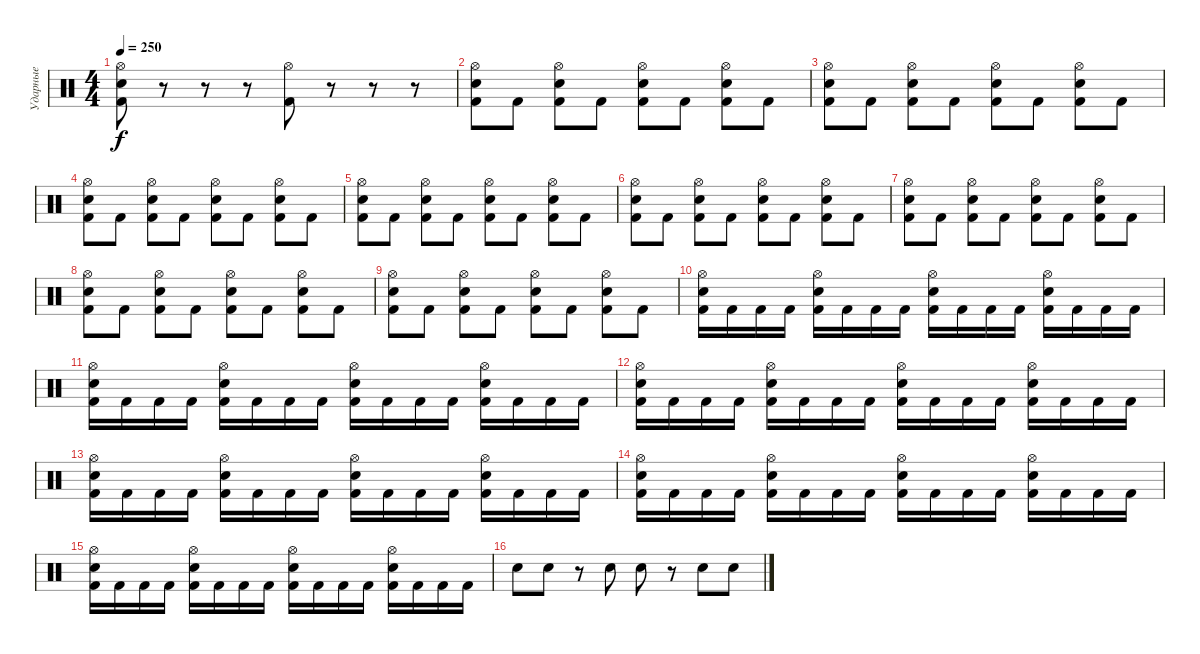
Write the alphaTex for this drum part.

\track ("Ударные" "Ударные") {instrument percussion}
\staff {score}
\articulation defaults
\ts (4 4)
\tempo 250
\clef neutral
\ks c
("Hi-Hat (open)" "Kick (hit) 2" "Electric Snare (hit)").8{dy f} r.8 r.8 r.8 ("Hi-Hat (open)" "Kick (hit) 2").8 r.8 r.8 r.8 |
("Kick (hit) 2" "Snare (hit) 2" "Hi-Hat (open)").8 "Kick (hit) 2".8 ("Kick (hit) 2" "Snare (hit) 2" "Hi-Hat (open)").8 "Kick (hit) 2".8 ("Kick (hit) 2" "Snare (hit) 2" "Hi-Hat (open)").8 "Kick (hit) 2".8 ("Kick (hit) 2" "Snare (hit) 2" "Hi-Hat (open)").8 "Kick (hit) 2".8 |
("Kick (hit) 2" "Snare (hit) 2" "Hi-Hat (open)").8 "Kick (hit) 2".8 ("Kick (hit) 2" "Snare (hit) 2" "Hi-Hat (open)").8 "Kick (hit) 2".8 ("Kick (hit) 2" "Snare (hit) 2" "Hi-Hat (open)").8 "Kick (hit) 2".8 ("Kick (hit) 2" "Snare (hit) 2" "Hi-Hat (open)").8 "Kick (hit) 2".8 |
("Kick (hit) 2" "Snare (hit) 2" "Hi-Hat (open)").8 "Kick (hit) 2".8 ("Kick (hit) 2" "Snare (hit) 2" "Hi-Hat (open)").8 "Kick (hit) 2".8 ("Kick (hit) 2" "Snare (hit) 2" "Hi-Hat (open)").8 "Kick (hit) 2".8 ("Kick (hit) 2" "Snare (hit) 2" "Hi-Hat (open)").8 "Kick (hit) 2".8 |
("Kick (hit) 2" "Snare (hit) 2" "Hi-Hat (open)").8 "Kick (hit) 2".8 ("Kick (hit) 2" "Snare (hit) 2" "Hi-Hat (open)").8 "Kick (hit) 2".8 ("Kick (hit) 2" "Snare (hit) 2" "Hi-Hat (open)").8 "Kick (hit) 2".8 ("Kick (hit) 2" "Snare (hit) 2" "Hi-Hat (open)").8 "Kick (hit) 2".8 |
("Kick (hit) 2" "Snare (hit) 2" "Hi-Hat (open)").8 "Kick (hit) 2".8 ("Kick (hit) 2" "Snare (hit) 2" "Hi-Hat (open)").8 "Kick (hit) 2".8 ("Kick (hit) 2" "Snare (hit) 2" "Hi-Hat (open)").8 "Kick (hit) 2".8 ("Kick (hit) 2" "Snare (hit) 2" "Hi-Hat (open)").8 "Kick (hit) 2".8 |
("Kick (hit) 2" "Snare (hit) 2" "Hi-Hat (open)").8 "Kick (hit) 2".8 ("Kick (hit) 2" "Snare (hit) 2" "Hi-Hat (open)").8 "Kick (hit) 2".8 ("Kick (hit) 2" "Snare (hit) 2" "Hi-Hat (open)").8 "Kick (hit) 2".8 ("Kick (hit) 2" "Snare (hit) 2" "Hi-Hat (open)").8 "Kick (hit) 2".8 |
("Kick (hit) 2" "Snare (hit) 2" "Hi-Hat (open)").8 "Kick (hit) 2".8 ("Kick (hit) 2" "Snare (hit) 2" "Hi-Hat (open)").8 "Kick (hit) 2".8 ("Kick (hit) 2" "Snare (hit) 2" "Hi-Hat (open)").8 "Kick (hit) 2".8 ("Kick (hit) 2" "Snare (hit) 2" "Hi-Hat (open)").8 "Kick (hit) 2".8 |
("Kick (hit) 2" "Snare (hit) 2" "Hi-Hat (open)").8 "Kick (hit) 2".8 ("Kick (hit) 2" "Snare (hit) 2" "Hi-Hat (open)").8 "Kick (hit) 2".8 ("Kick (hit) 2" "Snare (hit) 2" "Hi-Hat (open)").8 "Kick (hit) 2".8 ("Kick (hit) 2" "Snare (hit) 2" "Hi-Hat (open)").8 "Kick (hit) 2".8 |
("Kick (hit) 2" "Snare (hit) 2" "Hi-Hat (open)").16 "Kick (hit) 2".16 "Kick (hit) 2".16 "Kick (hit) 2".16 ("Kick (hit) 2" "Snare (hit) 2" "Hi-Hat (open)").16 "Kick (hit) 2".16 "Kick (hit) 2".16 "Kick (hit) 2".16 ("Kick (hit) 2" "Snare (hit) 2" "Hi-Hat (open)").16 "Kick (hit) 2".16 "Kick (hit) 2".16 "Kick (hit) 2".16 ("Kick (hit) 2" "Snare (hit) 2" "Hi-Hat (open)").16 "Kick (hit) 2".16 "Kick (hit) 2".16 "Kick (hit) 2".16 |
("Kick (hit) 2" "Snare (hit) 2" "Hi-Hat (open)").16 "Kick (hit) 2".16 "Kick (hit) 2".16 "Kick (hit) 2".16 ("Kick (hit) 2" "Snare (hit) 2" "Hi-Hat (open)").16 "Kick (hit) 2".16 "Kick (hit) 2".16 "Kick (hit) 2".16 ("Kick (hit) 2" "Snare (hit) 2" "Hi-Hat (open)").16 "Kick (hit) 2".16 "Kick (hit) 2".16 "Kick (hit) 2".16 ("Kick (hit) 2" "Snare (hit) 2" "Hi-Hat (open)").16 "Kick (hit) 2".16 "Kick (hit) 2".16 "Kick (hit) 2".16 |
("Kick (hit) 2" "Snare (hit) 2" "Hi-Hat (open)").16 "Kick (hit) 2".16 "Kick (hit) 2".16 "Kick (hit) 2".16 ("Kick (hit) 2" "Snare (hit) 2" "Hi-Hat (open)").16 "Kick (hit) 2".16 "Kick (hit) 2".16 "Kick (hit) 2".16 ("Kick (hit) 2" "Snare (hit) 2" "Hi-Hat (open)").16 "Kick (hit) 2".16 "Kick (hit) 2".16 "Kick (hit) 2".16 ("Kick (hit) 2" "Snare (hit) 2" "Hi-Hat (open)").16 "Kick (hit) 2".16 "Kick (hit) 2".16 "Kick (hit) 2".16 |
("Kick (hit) 2" "Snare (hit) 2" "Hi-Hat (open)").16 "Kick (hit) 2".16 "Kick (hit) 2".16 "Kick (hit) 2".16 ("Kick (hit) 2" "Snare (hit) 2" "Hi-Hat (open)").16 "Kick (hit) 2".16 "Kick (hit) 2".16 "Kick (hit) 2".16 ("Kick (hit) 2" "Snare (hit) 2" "Hi-Hat (open)").16 "Kick (hit) 2".16 "Kick (hit) 2".16 "Kick (hit) 2".16 ("Kick (hit) 2" "Snare (hit) 2" "Hi-Hat (open)").16 "Kick (hit) 2".16 "Kick (hit) 2".16 "Kick (hit) 2".16 |
("Kick (hit) 2" "Snare (hit) 2" "Hi-Hat (open)").16 "Kick (hit) 2".16 "Kick (hit) 2".16 "Kick (hit) 2".16 ("Kick (hit) 2" "Snare (hit) 2" "Hi-Hat (open)").16 "Kick (hit) 2".16 "Kick (hit) 2".16 "Kick (hit) 2".16 ("Kick (hit) 2" "Snare (hit) 2" "Hi-Hat (open)").16 "Kick (hit) 2".16 "Kick (hit) 2".16 "Kick (hit) 2".16 ("Kick (hit) 2" "Snare (hit) 2" "Hi-Hat (open)").16 "Kick (hit) 2".16 "Kick (hit) 2".16 "Kick (hit) 2".16 |
("Kick (hit) 2" "Snare (hit) 2" "Hi-Hat (open)").16 "Kick (hit) 2".16 "Kick (hit) 2".16 "Kick (hit) 2".16 ("Kick (hit) 2" "Snare (hit) 2" "Hi-Hat (open)").16 "Kick (hit) 2".16 "Kick (hit) 2".16 "Kick (hit) 2".16 ("Kick (hit) 2" "Snare (hit) 2" "Hi-Hat (open)").16 "Kick (hit) 2".16 "Kick (hit) 2".16 "Kick (hit) 2".16 ("Kick (hit) 2" "Snare (hit) 2" "Hi-Hat (open)").16 "Kick (hit) 2".16 "Kick (hit) 2".16 "Kick (hit) 2".16 |
"Snare (hit) 2".8 "Snare (hit) 2".8 r.8 "Snare (hit) 2".8 "Snare (hit) 2".8 r.8 "Snare (hit) 2".8 "Snare (hit) 2".8
